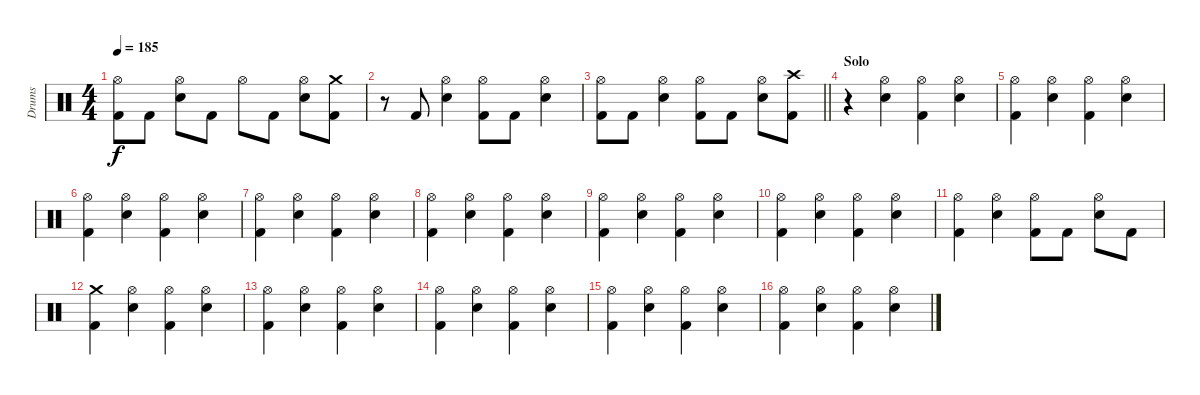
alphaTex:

\track ("Drums" "Drums") {instrument percussion}
\staff {score}
\articulation defaults
\ts (4 4)
\tempo 185
\clef neutral
\ks c
("Hi-Hat (open)" "Kick (hit) 2").8{dy f} "Kick (hit) 2".8 ("Hi-Hat (open)" "Snare (hit) 2").8 "Kick (hit) 2".8 "Hi-Hat (open)".8 "Kick (hit) 2".8 ("Hi-Hat (open)" "Snare (hit) 2").8 ("Crash medium (hit)" "Kick (hit) 2").8 |
r.8 "Kick (hit) 2".8 ("Hi-Hat (open)" "Snare (hit) 2").4 ("Hi-Hat (open)" "Kick (hit) 2").8 "Kick (hit) 2".8 ("Hi-Hat (open)" "Snare (hit) 2").4 |
\barLineRight lightlight
("Hi-Hat (open)" "Kick (hit) 2").8 "Kick (hit) 2".8 ("Hi-Hat (open)" "Snare (hit) 2").4 ("Hi-Hat (open)" "Kick (hit) 2").8 "Kick (hit) 2".8 ("Hi-Hat (open)" "Snare (hit) 2").8 ("Crash high (hit)" "Kick (hit) 2").8 |
\section ("" "Solo")
r.4 ("Hi-Hat (open)" "Snare (hit) 2").4 ("Hi-Hat (open)" "Kick (hit) 2").4 ("Hi-Hat (open)" "Snare (hit) 2").4 |
("Hi-Hat (open)" "Kick (hit) 2").4 ("Hi-Hat (open)" "Snare (hit) 2").4 ("Hi-Hat (open)" "Kick (hit) 2").4 ("Hi-Hat (open)" "Snare (hit) 2").4 |
("Hi-Hat (open)" "Kick (hit) 2").4 ("Hi-Hat (open)" "Snare (hit) 2").4 ("Hi-Hat (open)" "Kick (hit) 2").4 ("Hi-Hat (open)" "Snare (hit) 2").4 |
("Hi-Hat (open)" "Kick (hit) 2").4 ("Hi-Hat (open)" "Snare (hit) 2").4 ("Hi-Hat (open)" "Kick (hit) 2").4 ("Hi-Hat (open)" "Snare (hit) 2").4 |
("Hi-Hat (open)" "Kick (hit) 2").4 ("Hi-Hat (open)" "Snare (hit) 2").4 ("Hi-Hat (open)" "Kick (hit) 2").4 ("Hi-Hat (open)" "Snare (hit) 2").4 |
("Hi-Hat (open)" "Kick (hit) 2").4 ("Hi-Hat (open)" "Snare (hit) 2").4 ("Hi-Hat (open)" "Kick (hit) 2").4 ("Hi-Hat (open)" "Snare (hit) 2").4 |
("Hi-Hat (open)" "Kick (hit) 2").4 ("Hi-Hat (open)" "Snare (hit) 2").4 ("Hi-Hat (open)" "Kick (hit) 2").4 ("Hi-Hat (open)" "Snare (hit) 2").4 |
("Hi-Hat (open)" "Kick (hit) 2").4 ("Hi-Hat (open)" "Snare (hit) 2").4 ("Hi-Hat (open)" "Kick (hit) 2").8 "Kick (hit) 2".8 ("Hi-Hat (open)" "Snare (hit) 2").8 "Kick (hit) 2".8 |
("Crash medium (hit)" "Kick (hit) 2").4 ("Hi-Hat (open)" "Snare (hit) 2").4 ("Hi-Hat (open)" "Kick (hit) 2").4 ("Hi-Hat (open)" "Snare (hit) 2").4 |
("Hi-Hat (open)" "Kick (hit) 2").4 ("Hi-Hat (open)" "Snare (hit) 2").4 ("Hi-Hat (open)" "Kick (hit) 2").4 ("Hi-Hat (open)" "Snare (hit) 2").4 |
("Hi-Hat (open)" "Kick (hit) 2").4 ("Hi-Hat (open)" "Snare (hit) 2").4 ("Hi-Hat (open)" "Kick (hit) 2").4 ("Hi-Hat (open)" "Snare (hit) 2").4 |
("Hi-Hat (open)" "Kick (hit) 2").4 ("Hi-Hat (open)" "Snare (hit) 2").4 ("Hi-Hat (open)" "Kick (hit) 2").4 ("Hi-Hat (open)" "Snare (hit) 2").4 |
("Hi-Hat (open)" "Kick (hit) 2").4 ("Hi-Hat (open)" "Snare (hit) 2").4 ("Hi-Hat (open)" "Kick (hit) 2").4 ("Hi-Hat (open)" "Snare (hit) 2").4
